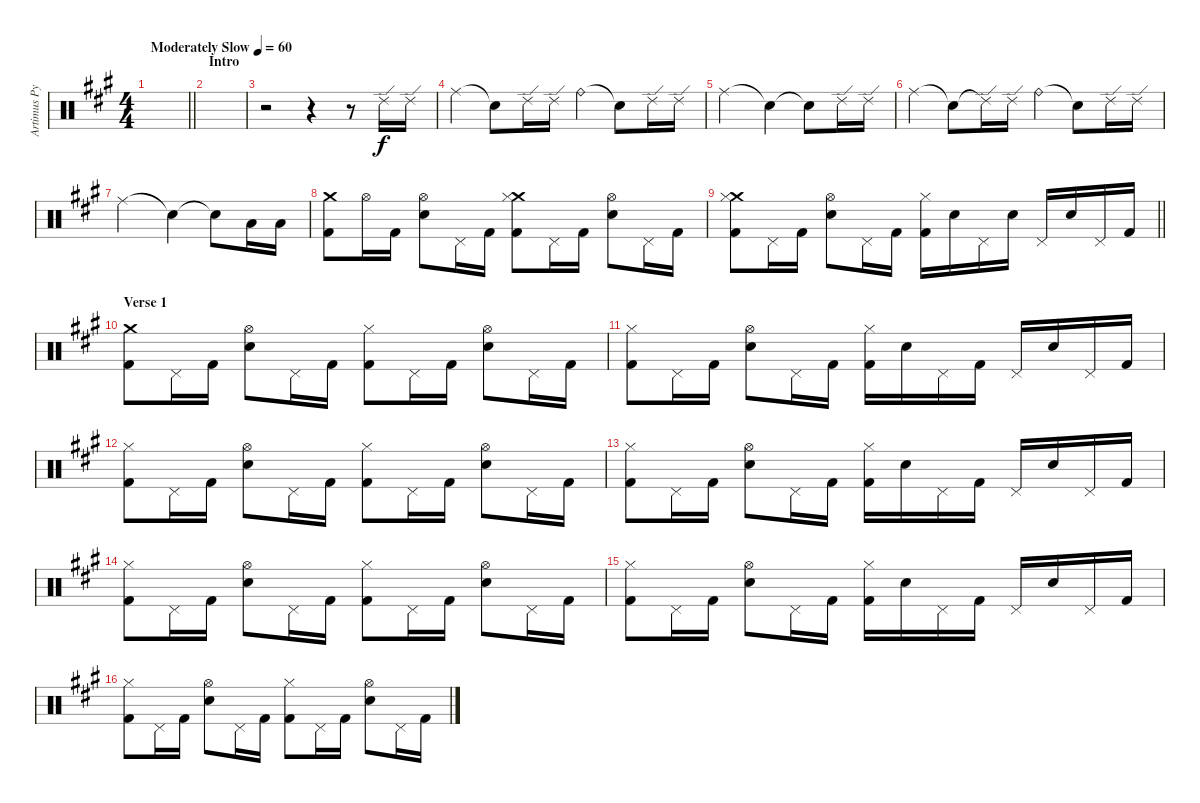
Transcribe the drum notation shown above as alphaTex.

\track ("Artimus Pyle - Drums" "Artimus Py") {instrument percussion}
\staff {score}
\articulation defaults
\ts (4 4)
\tempo (60 "Moderately Slow")
\clef neutral
\barLineRight lightlight
\ks f#minor
|
\section ("" "Intro")
|
r.2 r.4 r.8 "Ride (edge) 2".16 "Ride (edge) 2".16 |
"Ride (middle)".4 "Snare (hit)"{t}.8 "Ride (edge) 2".16 "Ride (edge) 2".16 "Ride (bell)".4 "Snare (hit)"{t}.8 "Ride (edge) 2".16 "Ride (edge) 2".16 |
"Ride (middle)".2 "Snare (hit)"{t}.4 "Snare (hit)"{t}.8 "Ride (edge) 2".16 "Ride (edge) 2".16 |
"Ride (middle)".4 "Snare (hit)"{t}.8 "Ride (edge) 2"{t}.16 "Ride (edge) 2".16 "Ride (bell)".4 "Snare (hit)"{t}.8 "Ride (edge) 2".16 "Ride (edge) 2".16 |
"Ride (middle)".2 "Snare (hit)"{t}.4 "Snare (hit)"{t}.8 "Low Floor Tom (hit)".16 "Low Floor Tom (hit)".16 |
("Crash medium (hit)" "Kick (hit) 2").8 "Hi-Hat (open)".16 "Kick (hit) 2".16 ("Snare (hit) 2" "Hi-Hat (open)").8 "Pedal Hi-Hat (hit)".16 "Kick (hit) 2".16 ("Crash medium (hit)" "Hi-Hat (closed)" "Kick (hit) 2").8 "Pedal Hi-Hat (hit)".16 "Kick (hit) 2".16 ("Snare (hit) 2" "Hi-Hat (open)").8 "Pedal Hi-Hat (hit)".16 "Kick (hit) 2".16 |
\barLineRight lightlight
("Crash medium (hit)" "Hi-Hat (closed)" "Kick (hit) 2").8 "Pedal Hi-Hat (hit)".16 "Kick (hit) 2".16 ("Snare (hit) 2" "Hi-Hat (open)").8 "Pedal Hi-Hat (hit)".16 "Kick (hit) 2".16 ("Hi-Hat (closed)" "Kick (hit) 2").16 "Snare (hit) 2".16 "Pedal Hi-Hat (hit)".16 "Snare (hit) 2".16 "Pedal Hi-Hat (hit)".16 "Snare (hit) 2".16 "Pedal Hi-Hat (hit)".16 "Kick (hit) 2".16 |
\section ("" "Verse 1")
("Crash medium (hit)" "Kick (hit) 2").8 "Pedal Hi-Hat (hit)".16 "Kick (hit) 2".16 ("Snare (hit) 2" "Hi-Hat (open)").8 "Pedal Hi-Hat (hit)".16 "Kick (hit) 2".16 ("Hi-Hat (closed)" "Kick (hit) 2").8 "Pedal Hi-Hat (hit)".16 "Kick (hit) 2".16 ("Snare (hit) 2" "Hi-Hat (open)").8 "Pedal Hi-Hat (hit)".16 "Kick (hit) 2".16 |
("Hi-Hat (closed)" "Kick (hit) 2").8 "Pedal Hi-Hat (hit)".16 "Kick (hit) 2".16 ("Snare (hit) 2" "Hi-Hat (open)").8 "Pedal Hi-Hat (hit)".16 "Kick (hit) 2".16 ("Hi-Hat (closed)" "Kick (hit) 2").16 "Snare (hit) 2".16 "Pedal Hi-Hat (hit)".16 "Kick (hit) 2".16 "Pedal Hi-Hat (hit)".16 "Snare (hit) 2".16 "Pedal Hi-Hat (hit)".16 "Kick (hit) 2".16 |
("Hi-Hat (closed)" "Kick (hit) 2").8 "Pedal Hi-Hat (hit)".16 "Kick (hit) 2".16 ("Snare (hit) 2" "Hi-Hat (open)").8 "Pedal Hi-Hat (hit)".16 "Kick (hit) 2".16 ("Hi-Hat (closed)" "Kick (hit) 2").8 "Pedal Hi-Hat (hit)".16 "Kick (hit) 2".16 ("Snare (hit) 2" "Hi-Hat (open)").8 "Pedal Hi-Hat (hit)".16 "Kick (hit) 2".16 |
("Hi-Hat (closed)" "Kick (hit) 2").8 "Pedal Hi-Hat (hit)".16 "Kick (hit) 2".16 ("Snare (hit) 2" "Hi-Hat (open)").8 "Pedal Hi-Hat (hit)".16 "Kick (hit) 2".16 ("Hi-Hat (closed)" "Kick (hit) 2").16 "Snare (hit) 2".16 "Pedal Hi-Hat (hit)".16 "Kick (hit) 2".16 "Pedal Hi-Hat (hit)".16 "Snare (hit) 2".16 "Pedal Hi-Hat (hit)".16 "Kick (hit) 2".16 |
("Hi-Hat (closed)" "Kick (hit) 2").8 "Pedal Hi-Hat (hit)".16 "Kick (hit) 2".16 ("Snare (hit) 2" "Hi-Hat (open)").8 "Pedal Hi-Hat (hit)".16 "Kick (hit) 2".16 ("Hi-Hat (closed)" "Kick (hit) 2").8 "Pedal Hi-Hat (hit)".16 "Kick (hit) 2".16 ("Snare (hit) 2" "Hi-Hat (open)").8 "Pedal Hi-Hat (hit)".16 "Kick (hit) 2".16 |
("Hi-Hat (closed)" "Kick (hit) 2").8 "Pedal Hi-Hat (hit)".16 "Kick (hit) 2".16 ("Snare (hit) 2" "Hi-Hat (open)").8 "Pedal Hi-Hat (hit)".16 "Kick (hit) 2".16 ("Hi-Hat (closed)" "Kick (hit) 2").16 "Snare (hit) 2".16 "Pedal Hi-Hat (hit)".16 "Kick (hit) 2".16 "Pedal Hi-Hat (hit)".16 "Snare (hit) 2".16 "Pedal Hi-Hat (hit)".16 "Kick (hit) 2".16 |
("Hi-Hat (closed)" "Kick (hit) 2").8 "Pedal Hi-Hat (hit)".16 "Kick (hit) 2".16 ("Snare (hit) 2" "Hi-Hat (open)").8 "Pedal Hi-Hat (hit)".16 "Kick (hit) 2".16 ("Hi-Hat (closed)" "Kick (hit) 2").8 "Pedal Hi-Hat (hit)".16 "Kick (hit) 2".16 ("Snare (hit) 2" "Hi-Hat (open)").8 "Pedal Hi-Hat (hit)".16 "Kick (hit) 2".16
